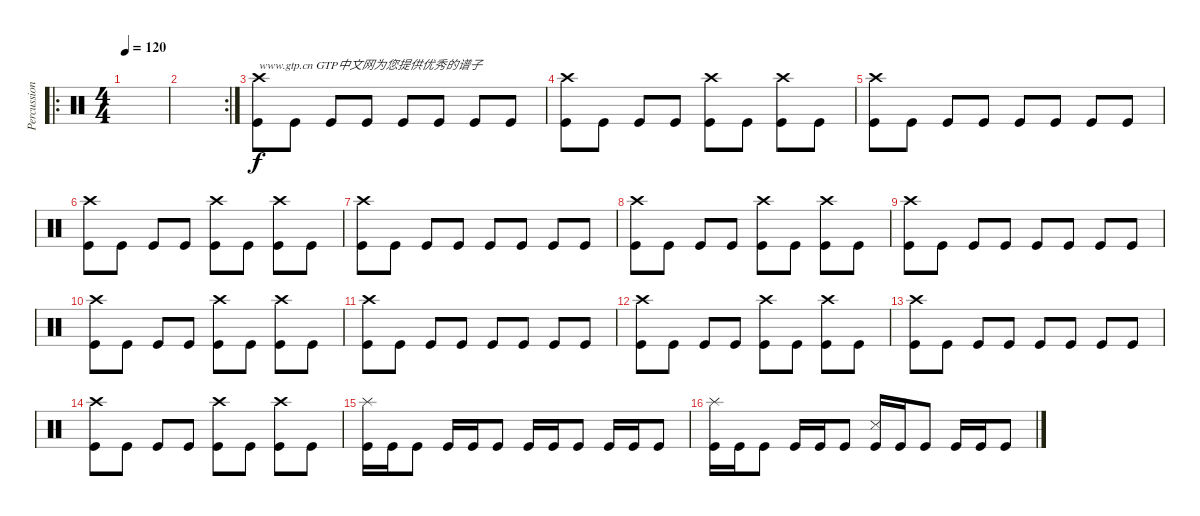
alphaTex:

\track ("Percussion" "Percussion") {instrument percussion}
\staff {score}
\articulation defaults
\ro
\ts (4 4)
\tempo 120
\clef neutral
\ks c
|
\rc 2
|
("Kick (hit)" "Crash high (hit)").8{txt "www.gtp.cn GTP中文网为您提供优秀的谱子"} "Kick (hit)".8 "Kick (hit)".8 "Kick (hit)".8 "Kick (hit)".8 "Kick (hit)".8 "Kick (hit)".8 "Kick (hit)".8 |
("Kick (hit)" "Crash high (hit)").8 "Kick (hit)".8 "Kick (hit)".8 "Kick (hit)".8 ("Kick (hit)" "Crash high (hit)").8 "Kick (hit)".8 ("Kick (hit)" "Crash high (hit)").8 "Kick (hit)".8 |
("Kick (hit)" "Crash high (hit)").8 "Kick (hit)".8 "Kick (hit)".8 "Kick (hit)".8 "Kick (hit)".8 "Kick (hit)".8 "Kick (hit)".8 "Kick (hit)".8 |
("Kick (hit)" "Crash high (hit)").8 "Kick (hit)".8 "Kick (hit)".8 "Kick (hit)".8 ("Kick (hit)" "Crash high (hit)").8 "Kick (hit)".8 ("Kick (hit)" "Crash high (hit)").8 "Kick (hit)".8 |
("Kick (hit)" "Crash high (hit)").8 "Kick (hit)".8 "Kick (hit)".8 "Kick (hit)".8 "Kick (hit)".8 "Kick (hit)".8 "Kick (hit)".8 "Kick (hit)".8 |
("Kick (hit)" "Crash high (hit)").8 "Kick (hit)".8 "Kick (hit)".8 "Kick (hit)".8 ("Kick (hit)" "Crash high (hit)").8 "Kick (hit)".8 ("Kick (hit)" "Crash high (hit)").8 "Kick (hit)".8 |
("Kick (hit)" "Crash high (hit)").8 "Kick (hit)".8 "Kick (hit)".8 "Kick (hit)".8 "Kick (hit)".8 "Kick (hit)".8 "Kick (hit)".8 "Kick (hit)".8 |
("Kick (hit)" "Crash high (hit)").8 "Kick (hit)".8 "Kick (hit)".8 "Kick (hit)".8 ("Kick (hit)" "Crash high (hit)").8 "Kick (hit)".8 ("Kick (hit)" "Crash high (hit)").8 "Kick (hit)".8 |
("Kick (hit)" "Crash high (hit)").8 "Kick (hit)".8 "Kick (hit)".8 "Kick (hit)".8 "Kick (hit)".8 "Kick (hit)".8 "Kick (hit)".8 "Kick (hit)".8 |
("Kick (hit)" "Crash high (hit)").8 "Kick (hit)".8 "Kick (hit)".8 "Kick (hit)".8 ("Kick (hit)" "Crash high (hit)").8 "Kick (hit)".8 ("Kick (hit)" "Crash high (hit)").8 "Kick (hit)".8 |
("Kick (hit)" "Crash high (hit)").8 "Kick (hit)".8 "Kick (hit)".8 "Kick (hit)".8 "Kick (hit)".8 "Kick (hit)".8 "Kick (hit)".8 "Kick (hit)".8 |
("Kick (hit)" "Crash high (hit)").8 "Kick (hit)".8 "Kick (hit)".8 "Kick (hit)".8 ("Kick (hit)" "Crash high (hit)").8 "Kick (hit)".8 ("Kick (hit)" "Crash high (hit)").8 "Kick (hit)".8 |
("Kick (hit)" "Splash (hit)").16 "Kick (hit)".16 "Kick (hit)".8 "Kick (hit)".16 "Kick (hit)".16 "Kick (hit)".8 "Kick (hit)".16 "Kick (hit)".16 "Kick (hit)".8 "Kick (hit)".16 "Kick (hit)".16 "Kick (hit)".8 |
("Kick (hit)" "Splash (hit)").16 "Kick (hit)".16 "Kick (hit)".8 "Kick (hit)".16 "Kick (hit)".16 "Kick (hit)".8 ("Kick (hit)" "Snare (side stick) 3").16 "Kick (hit)".16 "Kick (hit)".8 "Kick (hit)".16 "Kick (hit)".16 "Kick (hit)".8
